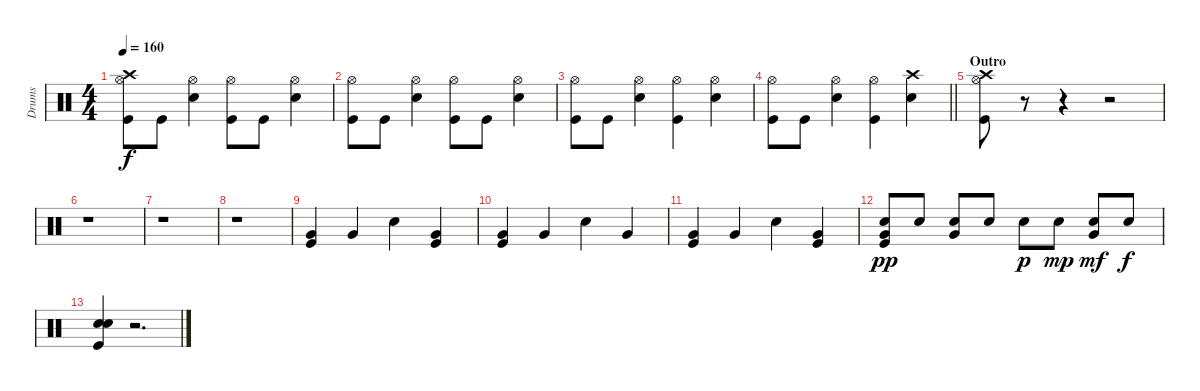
\track ("Drums" "Drums") {instrument percussion}
\staff {score}
\articulation defaults
\ts (4 4)
\tempo 160
\clef neutral
\ks c
("Crash high (hit)" "Hi-Hat (open)" "Kick (hit)").8{dy f} "Kick (hit)".8 ("Hi-Hat (open)" "Snare (hit) 2").4 ("Hi-Hat (open)" "Kick (hit)").8 "Kick (hit)".8 ("Hi-Hat (open)" "Snare (hit) 2").4 |
("Hi-Hat (open)" "Kick (hit)").8 "Kick (hit)".8 ("Hi-Hat (open)" "Snare (hit) 2").4 ("Hi-Hat (open)" "Kick (hit)").8 "Kick (hit)".8 ("Hi-Hat (open)" "Snare (hit) 2").4 |
("Hi-Hat (open)" "Kick (hit)").8 "Kick (hit)".8 ("Hi-Hat (open)" "Snare (hit) 2").4 ("Hi-Hat (open)" "Kick (hit)").4 ("Hi-Hat (open)" "Snare (hit) 2").4 |
\barLineRight lightlight
("Hi-Hat (open)" "Kick (hit)").8 "Kick (hit)".8 ("Hi-Hat (open)" "Snare (hit) 2").4 ("Hi-Hat (open)" "Kick (hit)").4 ("Crash high (hit)" "Snare (hit) 2").4 |
\section ("" "Outro")
("Crash high (hit)" "Hi-Hat (open)" "Kick (hit)").8 r.8 r.4 r.2 |
r.1 |
r.1 |
r.1 |
("Very Low Tom (hit)" "Kick (hit)").4 "Very Low Tom (hit)".4 "Snare (hit) 2".4 ("Very Low Tom (hit)" "Kick (hit)").4 |
("Very Low Tom (hit)" "Kick (hit)").4 "Very Low Tom (hit)".4 "Snare (hit) 2".4 "Very Low Tom (hit)".4 |
("Very Low Tom (hit)" "Kick (hit)").4 "Very Low Tom (hit)".4 "Snare (hit) 2".4 ("Very Low Tom (hit)" "Kick (hit)").4 |
("Very Low Tom (hit)" "Snare (hit) 2" "Kick (hit)").8{dy pp} "Snare (hit) 2".8 ("Very Low Tom (hit)" "Snare (hit) 2").8 "Snare (hit) 2".8 "Snare (hit) 2".8{dy p} "Snare (hit) 2".8{dy mp} ("Very Low Tom (hit)" "Snare (hit) 2").8{dy mf} "Snare (hit) 2".8{dy f} |
("Snare (hit) 2" "Snare (hit) 2" "Kick (hit)").4{bd 120} r.2{d}
